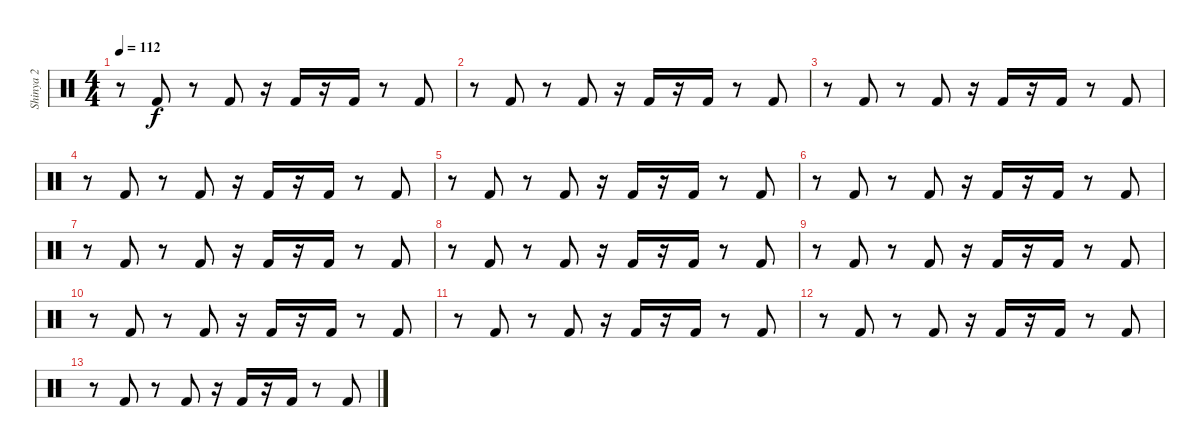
\track ("Shinya 2" "Shinya 2") {instrument percussion}
\staff {score}
\articulation defaults
\ts (4 4)
\tempo 112
\clef neutral
\ks c
r.8{dy f} "Kick (hit) 2".8 r.8 "Kick (hit) 2".8 r.16 "Kick (hit) 2".16 r.16 "Kick (hit) 2".16 r.8 "Kick (hit) 2".8 |
r.8 "Kick (hit) 2".8 r.8 "Kick (hit) 2".8 r.16 "Kick (hit) 2".16 r.16 "Kick (hit) 2".16 r.8 "Kick (hit) 2".8 |
r.8 "Kick (hit) 2".8 r.8 "Kick (hit) 2".8 r.16 "Kick (hit) 2".16 r.16 "Kick (hit) 2".16 r.8 "Kick (hit) 2".8 |
r.8 "Kick (hit) 2".8 r.8 "Kick (hit) 2".8 r.16 "Kick (hit) 2".16 r.16 "Kick (hit) 2".16 r.8 "Kick (hit) 2".8 |
r.8 "Kick (hit) 2".8 r.8 "Kick (hit) 2".8 r.16 "Kick (hit) 2".16 r.16 "Kick (hit) 2".16 r.8 "Kick (hit) 2".8 |
r.8 "Kick (hit) 2".8 r.8 "Kick (hit) 2".8 r.16 "Kick (hit) 2".16 r.16 "Kick (hit) 2".16 r.8 "Kick (hit) 2".8 |
r.8 "Kick (hit) 2".8 r.8 "Kick (hit) 2".8 r.16 "Kick (hit) 2".16 r.16 "Kick (hit) 2".16 r.8 "Kick (hit) 2".8 |
r.8 "Kick (hit) 2".8 r.8 "Kick (hit) 2".8 r.16 "Kick (hit) 2".16 r.16 "Kick (hit) 2".16 r.8 "Kick (hit) 2".8 |
r.8 "Kick (hit) 2".8 r.8 "Kick (hit) 2".8 r.16 "Kick (hit) 2".16 r.16 "Kick (hit) 2".16 r.8 "Kick (hit) 2".8 |
r.8 "Kick (hit) 2".8 r.8 "Kick (hit) 2".8 r.16 "Kick (hit) 2".16 r.16 "Kick (hit) 2".16 r.8 "Kick (hit) 2".8 |
r.8 "Kick (hit) 2".8 r.8 "Kick (hit) 2".8 r.16 "Kick (hit) 2".16 r.16 "Kick (hit) 2".16 r.8 "Kick (hit) 2".8 |
r.8 "Kick (hit) 2".8 r.8 "Kick (hit) 2".8 r.16 "Kick (hit) 2".16 r.16 "Kick (hit) 2".16 r.8 "Kick (hit) 2".8 |
r.8 "Kick (hit) 2".8 r.8 "Kick (hit) 2".8 r.16 "Kick (hit) 2".16 r.16 "Kick (hit) 2".16 r.8 "Kick (hit) 2".8
